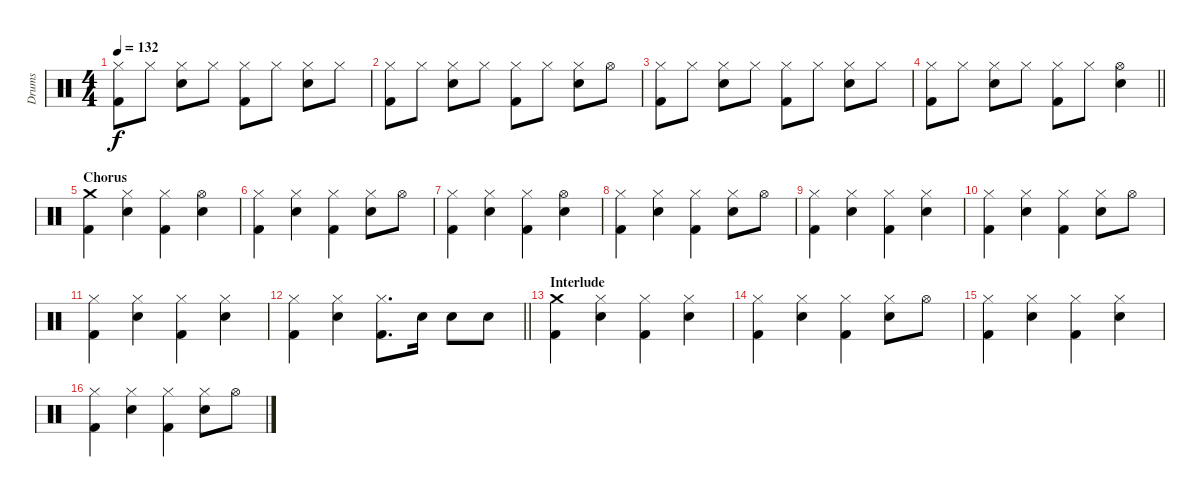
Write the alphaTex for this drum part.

\track ("Drums" "Drums") {instrument percussion}
\staff {score}
\articulation defaults
\ts (4 4)
\tempo 132
\clef neutral
\ks c
("Hi-Hat (closed)" "Kick (hit) 2").8{dy f} "Hi-Hat (closed)".8 ("Hi-Hat (closed)" "Electric Snare (hit)").8 "Hi-Hat (closed)".8 ("Hi-Hat (closed)" "Kick (hit) 2").8 "Hi-Hat (closed)".8 ("Hi-Hat (closed)" "Electric Snare (hit)").8 "Hi-Hat (closed)".8 |
("Hi-Hat (closed)" "Kick (hit) 2").8 "Hi-Hat (closed)".8 ("Hi-Hat (closed)" "Electric Snare (hit)").8 "Hi-Hat (closed)".8 ("Hi-Hat (closed)" "Kick (hit) 2").8 "Hi-Hat (closed)".8 ("Hi-Hat (closed)" "Electric Snare (hit)").8 "Hi-Hat (open)".8 |
("Hi-Hat (closed)" "Kick (hit) 2").8 "Hi-Hat (closed)".8 ("Hi-Hat (closed)" "Electric Snare (hit)").8 "Hi-Hat (closed)".8 ("Hi-Hat (closed)" "Kick (hit) 2").8 "Hi-Hat (closed)".8 ("Hi-Hat (closed)" "Electric Snare (hit)").8 "Hi-Hat (closed)".8 |
\barLineRight lightlight
("Hi-Hat (closed)" "Kick (hit) 2").8 "Hi-Hat (closed)".8 ("Hi-Hat (closed)" "Electric Snare (hit)").8 "Hi-Hat (closed)".8 ("Hi-Hat (closed)" "Kick (hit) 2").8 "Hi-Hat (closed)".8 ("Hi-Hat (open)" "Electric Snare (hit)").4 |
\section ("" "Chorus")
("Crash medium (hit)" "Kick (hit) 2").4 ("Hi-Hat (closed)" "Electric Snare (hit)").4 ("Hi-Hat (closed)" "Kick (hit) 2").4 ("Hi-Hat (open)" "Electric Snare (hit)").4 |
("Hi-Hat (closed)" "Kick (hit) 2").4 ("Hi-Hat (closed)" "Electric Snare (hit)").4 ("Hi-Hat (closed)" "Kick (hit) 2").4 ("Hi-Hat (closed)" "Electric Snare (hit)").8 "Hi-Hat (open)".8 |
("Hi-Hat (closed)" "Kick (hit) 2").4 ("Hi-Hat (closed)" "Electric Snare (hit)").4 ("Hi-Hat (closed)" "Kick (hit) 2").4 ("Hi-Hat (open)" "Electric Snare (hit)").4 |
("Hi-Hat (closed)" "Kick (hit) 2").4 ("Hi-Hat (closed)" "Electric Snare (hit)").4 ("Hi-Hat (closed)" "Kick (hit) 2").4 ("Hi-Hat (closed)" "Electric Snare (hit)").8 "Hi-Hat (open)".8 |
("Hi-Hat (closed)" "Kick (hit) 2").4 ("Hi-Hat (closed)" "Electric Snare (hit)").4 ("Hi-Hat (closed)" "Kick (hit) 2").4 ("Hi-Hat (closed)" "Electric Snare (hit)").4 |
("Hi-Hat (closed)" "Kick (hit) 2").4 ("Hi-Hat (closed)" "Electric Snare (hit)").4 ("Hi-Hat (closed)" "Kick (hit) 2").4 ("Hi-Hat (closed)" "Electric Snare (hit)").8 "Hi-Hat (open)".8 |
("Hi-Hat (closed)" "Kick (hit) 2").4 ("Hi-Hat (closed)" "Electric Snare (hit)").4 ("Hi-Hat (closed)" "Kick (hit) 2").4 ("Hi-Hat (closed)" "Electric Snare (hit)").4 |
\barLineRight lightlight
("Hi-Hat (closed)" "Kick (hit) 2").4 ("Hi-Hat (closed)" "Electric Snare (hit)").4 ("Hi-Hat (closed)" "Kick (hit) 2").8{d} "Electric Snare (hit)".16 "Electric Snare (hit)".8 "Electric Snare (hit)".8 |
\section ("" "Interlude")
("Crash medium (hit)" "Kick (hit) 2").4 ("Hi-Hat (closed)" "Electric Snare (hit)").4 ("Hi-Hat (closed)" "Kick (hit) 2").4 ("Hi-Hat (closed)" "Electric Snare (hit)").4 |
("Hi-Hat (closed)" "Kick (hit) 2").4 ("Hi-Hat (closed)" "Electric Snare (hit)").4 ("Hi-Hat (closed)" "Kick (hit) 2").4 ("Hi-Hat (closed)" "Electric Snare (hit)").8 "Hi-Hat (open)".8 |
("Hi-Hat (closed)" "Kick (hit) 2").4 ("Hi-Hat (closed)" "Electric Snare (hit)").4 ("Hi-Hat (closed)" "Kick (hit) 2").4 ("Hi-Hat (closed)" "Electric Snare (hit)").4 |
("Hi-Hat (closed)" "Kick (hit) 2").4 ("Hi-Hat (closed)" "Electric Snare (hit)").4 ("Hi-Hat (closed)" "Kick (hit) 2").4 ("Hi-Hat (closed)" "Electric Snare (hit)").8 "Hi-Hat (open)".8
